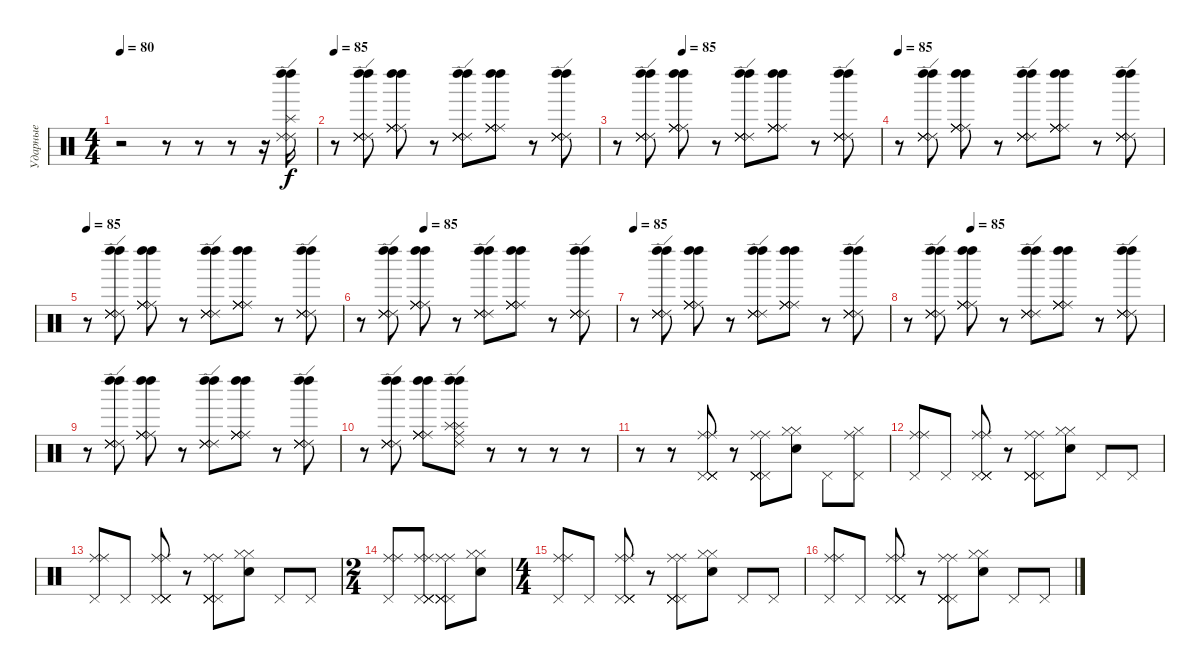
\track ("Ударные" "Ударные") {instrument percussion}
\staff {score}
\articulation defaults
\ts (4 4)
\tempo 80
\tempo 85
\tempo 80
\clef neutral
\ks c
r.2{dy f} r.8 r.8 r.8 r.16 ("Left Maraca (hit)" "Splash (hit)" "Ride (edge) 2" "Ride (edge) 2" "Left Maraca (hit)").16 |
\tempo 85
r.8 ("Left Maraca (hit)" "Ride (edge) 2" "Ride (edge) 2" "Ride (edge) 2" "Ride (edge) 2" "Left Maraca (hit)").8 ("Left Maraca (hit)" "Ride (middle)" "Ride (middle)" "Ride (middle)" "Ride (middle)" "Left Maraca (hit)").8 r.8 ("Left Maraca (hit)" "Ride (edge) 2" "Ride (edge) 2" "Ride (edge) 2" "Ride (edge) 2" "Left Maraca (hit)").8 ("Left Maraca (hit)" "Ride (middle)" "Ride (middle)" "Ride (middle)" "Ride (middle)" "Left Maraca (hit)").8 r.8 ("Left Maraca (hit)" "Ride (edge) 2" "Ride (edge) 2" "Ride (edge) 2" "Ride (edge) 2" "Left Maraca (hit)").8 |
\tempo (85 0.25)
r.8 ("Left Maraca (hit)" "Ride (edge) 2" "Ride (edge) 2" "Ride (edge) 2" "Ride (edge) 2" "Left Maraca (hit)").8 ("Left Maraca (hit)" "Ride (middle)" "Ride (middle)" "Ride (middle)" "Ride (middle)" "Left Maraca (hit)").8 r.8 ("Left Maraca (hit)" "Ride (edge) 2" "Ride (edge) 2" "Ride (edge) 2" "Ride (edge) 2" "Left Maraca (hit)").8 ("Left Maraca (hit)" "Ride (middle)" "Ride (middle)" "Ride (middle)" "Ride (middle)" "Left Maraca (hit)").8 r.8 ("Left Maraca (hit)" "Ride (edge) 2" "Ride (edge) 2" "Ride (edge) 2" "Ride (edge) 2" "Left Maraca (hit)").8 |
\tempo 85
r.8 ("Left Maraca (hit)" "Ride (edge) 2" "Ride (edge) 2" "Ride (edge) 2" "Ride (edge) 2" "Left Maraca (hit)").8 ("Left Maraca (hit)" "Ride (middle)" "Ride (middle)" "Ride (middle)" "Ride (middle)" "Left Maraca (hit)").8 r.8 ("Left Maraca (hit)" "Ride (edge) 2" "Ride (edge) 2" "Ride (edge) 2" "Ride (edge) 2" "Left Maraca (hit)").8 ("Left Maraca (hit)" "Ride (middle)" "Ride (middle)" "Ride (middle)" "Ride (middle)" "Left Maraca (hit)").8 r.8 ("Left Maraca (hit)" "Ride (edge) 2" "Ride (edge) 2" "Ride (edge) 2" "Ride (edge) 2" "Left Maraca (hit)").8 |
\tempo 85
r.8 ("Left Maraca (hit)" "Ride (edge) 2" "Ride (edge) 2" "Ride (edge) 2" "Ride (edge) 2" "Left Maraca (hit)").8 ("Left Maraca (hit)" "Ride (middle)" "Ride (middle)" "Ride (middle)" "Ride (middle)" "Left Maraca (hit)").8 r.8 ("Left Maraca (hit)" "Ride (edge) 2" "Ride (edge) 2" "Ride (edge) 2" "Ride (edge) 2" "Left Maraca (hit)").8 ("Left Maraca (hit)" "Ride (middle)" "Ride (middle)" "Ride (middle)" "Ride (middle)" "Left Maraca (hit)").8 r.8 ("Left Maraca (hit)" "Ride (edge) 2" "Ride (edge) 2" "Ride (edge) 2" "Ride (edge) 2" "Left Maraca (hit)").8 |
\tempo (85 0.25)
r.8 ("Left Maraca (hit)" "Ride (edge) 2" "Ride (edge) 2" "Ride (edge) 2" "Ride (edge) 2" "Left Maraca (hit)").8 ("Left Maraca (hit)" "Ride (middle)" "Ride (middle)" "Ride (middle)" "Ride (middle)" "Left Maraca (hit)").8 r.8 ("Left Maraca (hit)" "Ride (edge) 2" "Ride (edge) 2" "Ride (edge) 2" "Ride (edge) 2" "Left Maraca (hit)").8 ("Left Maraca (hit)" "Ride (middle)" "Ride (middle)" "Ride (middle)" "Ride (middle)" "Left Maraca (hit)").8 r.8 ("Left Maraca (hit)" "Ride (edge) 2" "Ride (edge) 2" "Ride (edge) 2" "Ride (edge) 2" "Left Maraca (hit)").8 |
\tempo 85
r.8 ("Left Maraca (hit)" "Ride (edge) 2" "Ride (edge) 2" "Ride (edge) 2" "Ride (edge) 2" "Left Maraca (hit)").8 ("Left Maraca (hit)" "Ride (middle)" "Ride (middle)" "Ride (middle)" "Ride (middle)" "Left Maraca (hit)").8 r.8 ("Left Maraca (hit)" "Ride (edge) 2" "Ride (edge) 2" "Ride (edge) 2" "Ride (edge) 2" "Left Maraca (hit)").8 ("Left Maraca (hit)" "Ride (middle)" "Ride (middle)" "Ride (middle)" "Ride (middle)" "Left Maraca (hit)").8 r.8 ("Left Maraca (hit)" "Ride (edge) 2" "Ride (edge) 2" "Ride (edge) 2" "Ride (edge) 2" "Left Maraca (hit)").8 |
\tempo (85 0.25)
r.8 ("Left Maraca (hit)" "Ride (edge) 2" "Ride (edge) 2" "Ride (edge) 2" "Ride (edge) 2" "Left Maraca (hit)").8 ("Left Maraca (hit)" "Ride (middle)" "Ride (middle)" "Ride (middle)" "Ride (middle)" "Left Maraca (hit)").8 r.8 ("Left Maraca (hit)" "Ride (edge) 2" "Ride (edge) 2" "Ride (edge) 2" "Ride (edge) 2" "Left Maraca (hit)").8 ("Left Maraca (hit)" "Ride (middle)" "Ride (middle)" "Ride (middle)" "Ride (middle)" "Left Maraca (hit)").8 r.8 ("Left Maraca (hit)" "Ride (edge) 2" "Ride (edge) 2" "Ride (edge) 2" "Ride (edge) 2" "Left Maraca (hit)").8 |
r.8 ("Left Maraca (hit)" "Ride (edge) 2" "Ride (edge) 2" "Ride (edge) 2" "Ride (edge) 2" "Left Maraca (hit)").8 ("Left Maraca (hit)" "Ride (middle)" "Ride (middle)" "Ride (middle)" "Ride (middle)" "Left Maraca (hit)").8 r.8 ("Left Maraca (hit)" "Ride (edge) 2" "Ride (edge) 2" "Ride (edge) 2" "Ride (edge) 2" "Left Maraca (hit)").8 ("Left Maraca (hit)" "Ride (middle)" "Ride (middle)" "Ride (middle)" "Ride (middle)" "Left Maraca (hit)").8 r.8 ("Left Maraca (hit)" "Ride (edge) 2" "Ride (edge) 2" "Ride (edge) 2" "Ride (edge) 2" "Left Maraca (hit)").8 |
r.8 ("Left Maraca (hit)" "Ride (edge) 2" "Ride (edge) 2" "Ride (edge) 2" "Ride (edge) 2" "Left Maraca (hit)").8 ("Left Maraca (hit)" "Ride (middle)" "Ride (middle)" "Ride (middle)" "Ride (middle)" "Left Maraca (hit)").8 ("Left Maraca (hit)" "Ride (middle)" "Splash (hit)" "Splash (hit)" "Ride (edge) 2" "Left Maraca (hit)").8 r.8 r.8 r.8 r.8 |
r.8 r.8 ("Ride (middle)" "Pedal Hi-Hat (hit)" "Pedal Hi-Hat (hit)" "Pedal Hi-Hat (hit)" "Pedal Hi-Hat (hit)" "Ride (middle)").8 r.8 ("Ride (middle)" "Pedal Hi-Hat (hit)" "Pedal Hi-Hat (hit)" "Pedal Hi-Hat (hit)" "Pedal Hi-Hat (hit)" "Ride (middle)").8 ("Hi-Hat (closed)" "Electric Snare (hit)" "Hi-Hat (closed)").8 "Pedal Hi-Hat (hit)".8 ("Pedal Hi-Hat (hit)" "Ride (middle)" "Hi-Hat (closed)").8 |
("Pedal Hi-Hat (hit)" "Ride (middle)" "Ride (middle)").8 "Pedal Hi-Hat (hit)".8 ("Ride (middle)" "Pedal Hi-Hat (hit)" "Pedal Hi-Hat (hit)" "Pedal Hi-Hat (hit)" "Pedal Hi-Hat (hit)" "Ride (middle)").8 r.8 ("Ride (middle)" "Pedal Hi-Hat (hit)" "Pedal Hi-Hat (hit)" "Pedal Hi-Hat (hit)" "Pedal Hi-Hat (hit)" "Ride (middle)").8 ("Hi-Hat (closed)" "Electric Snare (hit)" "Hi-Hat (closed)").8 "Pedal Hi-Hat (hit)".8 "Pedal Hi-Hat (hit)".8 |
("Pedal Hi-Hat (hit)" "Ride (middle)" "Ride (middle)").8 "Pedal Hi-Hat (hit)".8 ("Ride (middle)" "Pedal Hi-Hat (hit)" "Pedal Hi-Hat (hit)" "Pedal Hi-Hat (hit)" "Pedal Hi-Hat (hit)" "Ride (middle)").8 r.8 ("Ride (middle)" "Pedal Hi-Hat (hit)" "Pedal Hi-Hat (hit)" "Pedal Hi-Hat (hit)" "Pedal Hi-Hat (hit)" "Ride (middle)").8 ("Hi-Hat (closed)" "Electric Snare (hit)" "Hi-Hat (closed)").8 "Pedal Hi-Hat (hit)".8 "Pedal Hi-Hat (hit)".8 |
\ts (2 4)
("Pedal Hi-Hat (hit)" "Ride (middle)" "Ride (middle)").8 ("Ride (middle)" "Pedal Hi-Hat (hit)" "Pedal Hi-Hat (hit)" "Pedal Hi-Hat (hit)" "Pedal Hi-Hat (hit)" "Ride (middle)").8 ("Ride (middle)" "Pedal Hi-Hat (hit)" "Pedal Hi-Hat (hit)" "Pedal Hi-Hat (hit)" "Pedal Hi-Hat (hit)" "Ride (middle)").8 ("Hi-Hat (closed)" "Electric Snare (hit)" "Hi-Hat (closed)").8 |
\ts (4 4)
("Pedal Hi-Hat (hit)" "Ride (middle)" "Ride (middle)").8 "Pedal Hi-Hat (hit)".8 ("Ride (middle)" "Pedal Hi-Hat (hit)" "Pedal Hi-Hat (hit)" "Pedal Hi-Hat (hit)" "Pedal Hi-Hat (hit)" "Ride (middle)").8 r.8 ("Ride (middle)" "Pedal Hi-Hat (hit)" "Pedal Hi-Hat (hit)" "Pedal Hi-Hat (hit)" "Pedal Hi-Hat (hit)" "Ride (middle)").8 ("Hi-Hat (closed)" "Electric Snare (hit)" "Hi-Hat (closed)").8 "Pedal Hi-Hat (hit)".8 "Pedal Hi-Hat (hit)".8 |
("Pedal Hi-Hat (hit)" "Ride (middle)" "Ride (middle)").8 "Pedal Hi-Hat (hit)".8 ("Ride (middle)" "Pedal Hi-Hat (hit)" "Pedal Hi-Hat (hit)" "Pedal Hi-Hat (hit)" "Pedal Hi-Hat (hit)" "Ride (middle)").8 r.8 ("Ride (middle)" "Pedal Hi-Hat (hit)" "Pedal Hi-Hat (hit)" "Pedal Hi-Hat (hit)" "Pedal Hi-Hat (hit)" "Ride (middle)").8 ("Hi-Hat (closed)" "Electric Snare (hit)" "Hi-Hat (closed)").8 "Pedal Hi-Hat (hit)".8 "Pedal Hi-Hat (hit)".8
